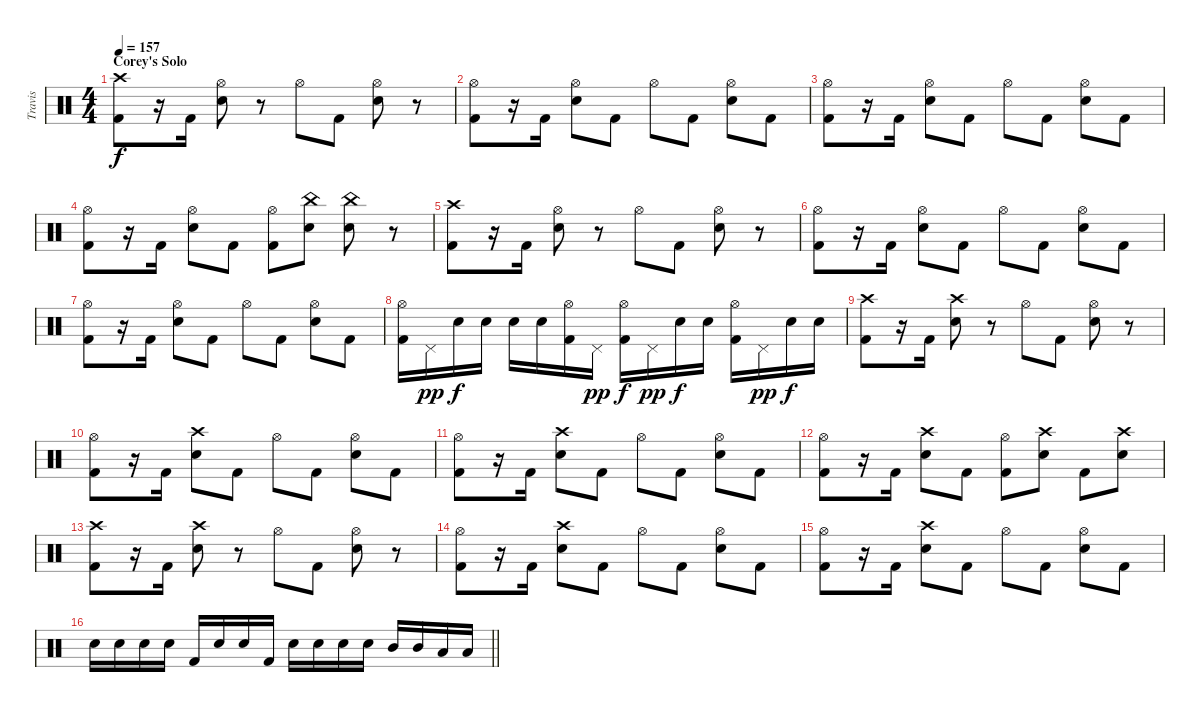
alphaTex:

\track ("Travis" "Travis") {instrument percussion}
\staff {score}
\articulation defaults
\ts (4 4)
\section ("" "Corey's Solo")
\tempo 157
\clef neutral
\ks c
("Crash high (hit)" "Kick (hit) 2").8{dy f} r.16 "Kick (hit) 2".16 ("Hi-Hat (open)" "Electric Snare (hit)").8 r.8 "Hi-Hat (open)".8 "Kick (hit) 2".8 ("Hi-Hat (open)" "Electric Snare (hit)").8 r.8 |
("Hi-Hat (open)" "Kick (hit) 2").8 r.16 "Kick (hit) 2".16 ("Hi-Hat (open)" "Electric Snare (hit)").8 "Kick (hit) 2".8 "Hi-Hat (open)".8 "Kick (hit) 2".8 ("Hi-Hat (open)" "Electric Snare (hit)").8 "Kick (hit) 2".8 |
("Hi-Hat (open)" "Kick (hit) 2").8 r.16 "Kick (hit) 2".16 ("Hi-Hat (open)" "Electric Snare (hit)").8 "Kick (hit) 2".8 "Hi-Hat (open)".8 "Kick (hit) 2".8 ("Hi-Hat (open)" "Electric Snare (hit)").8 "Kick (hit) 2".8 |
("Hi-Hat (open)" "Kick (hit) 2").8 r.16 "Kick (hit) 2".16 ("Hi-Hat (open)" "Electric Snare (hit)").8 "Kick (hit) 2".8 ("Hi-Hat (open)" "Kick (hit) 2").8 ("China (hit)" "Electric Snare (hit)").8 ("China (hit)" "Electric Snare (hit)").8 r.8 |
("Crash high (hit)" "Kick (hit) 2").8 r.16 "Kick (hit) 2".16 ("Hi-Hat (open)" "Electric Snare (hit)").8 r.8 "Hi-Hat (open)".8 "Kick (hit) 2".8 ("Hi-Hat (open)" "Electric Snare (hit)").8 r.8 |
("Hi-Hat (open)" "Kick (hit) 2").8 r.16 "Kick (hit) 2".16 ("Hi-Hat (open)" "Electric Snare (hit)").8 "Kick (hit) 2".8 "Hi-Hat (open)".8 "Kick (hit) 2".8 ("Hi-Hat (open)" "Electric Snare (hit)").8 "Kick (hit) 2".8 |
("Hi-Hat (open)" "Kick (hit) 2").8 r.16 "Kick (hit) 2".16 ("Hi-Hat (open)" "Electric Snare (hit)").8 "Kick (hit) 2".8 "Hi-Hat (open)".8 "Kick (hit) 2".8 ("Hi-Hat (open)" "Electric Snare (hit)").8 "Kick (hit) 2".8 |
("Hi-Hat (open)" "Kick (hit) 2").16 "Pedal Hi-Hat (hit)".16{dy pp} "Electric Snare (hit)".16{dy f} "Electric Snare (hit)".16 "Electric Snare (hit)".16 "Electric Snare (hit)".16 ("Hi-Hat (open)" "Kick (hit) 2").16 "Pedal Hi-Hat (hit)".16{dy pp} ("Hi-Hat (open)" "Kick (hit) 2").16{dy f} "Pedal Hi-Hat (hit)".16{dy pp} "Electric Snare (hit)".16{dy f} "Electric Snare (hit)".16 ("Hi-Hat (open)" "Kick (hit) 2").16 "Pedal Hi-Hat (hit)".16{dy pp} "Electric Snare (hit)".16{dy f} "Electric Snare (hit)".16 |
("Crash high (hit)" "Kick (hit) 2").8 r.16 "Kick (hit) 2".16 ("Crash high (hit)" "Electric Snare (hit)").8 r.8 "Hi-Hat (open)".8 "Kick (hit) 2".8 ("Hi-Hat (open)" "Electric Snare (hit)").8 r.8 |
("Hi-Hat (open)" "Kick (hit) 2").8 r.16 "Kick (hit) 2".16 ("Crash high (hit)" "Electric Snare (hit)").8 "Kick (hit) 2".8 "Hi-Hat (open)".8 "Kick (hit) 2".8 ("Hi-Hat (open)" "Electric Snare (hit)").8 "Kick (hit) 2".8 |
("Hi-Hat (open)" "Kick (hit) 2").8 r.16 "Kick (hit) 2".16 ("Crash high (hit)" "Electric Snare (hit)").8 "Kick (hit) 2".8 "Hi-Hat (open)".8 "Kick (hit) 2".8 ("Hi-Hat (open)" "Electric Snare (hit)").8 "Kick (hit) 2".8 |
("Hi-Hat (open)" "Kick (hit) 2").8 r.16 "Kick (hit) 2".16 ("Crash high (hit)" "Electric Snare (hit)").8 "Kick (hit) 2".8 ("Hi-Hat (open)" "Kick (hit) 2").8 ("Crash high (hit)" "Electric Snare (hit)").8 "Kick (hit) 2".8 ("Crash high (hit)" "Electric Snare (hit)").8 |
("Crash high (hit)" "Kick (hit) 2").8 r.16 "Kick (hit) 2".16 ("Crash high (hit)" "Electric Snare (hit)").8 r.8 "Hi-Hat (open)".8 "Kick (hit) 2".8 ("Hi-Hat (open)" "Electric Snare (hit)").8 r.8 |
("Hi-Hat (open)" "Kick (hit) 2").8 r.16 "Kick (hit) 2".16 ("Crash high (hit)" "Electric Snare (hit)").8 "Kick (hit) 2".8 "Hi-Hat (open)".8 "Kick (hit) 2".8 ("Hi-Hat (open)" "Electric Snare (hit)").8 "Kick (hit) 2".8 |
("Hi-Hat (open)" "Kick (hit) 2").8 r.16 "Kick (hit) 2".16 ("Crash high (hit)" "Electric Snare (hit)").8 "Kick (hit) 2".8 "Hi-Hat (open)".8 "Kick (hit) 2".8 ("Hi-Hat (open)" "Electric Snare (hit)").8 "Kick (hit) 2".8 |
\barLineRight lightlight "Electric Snare (hit)".16 "Electric Snare (hit)".16 "Electric Snare (hit)".16 "Electric Snare (hit)".16 "Kick (hit) 2".16 "Electric Snare (hit)".16 "Electric Snare (hit)".16 "Kick (hit) 2".16 "Electric Snare (hit)".16 "Electric Snare (hit)".16 "Electric Snare (hit)".16 "Electric Snare (hit)".16 "Mid Tom (hit)".16 "Mid Tom (hit)".16 "Low Tom (hit)".16 "Low Tom (hit)".16
